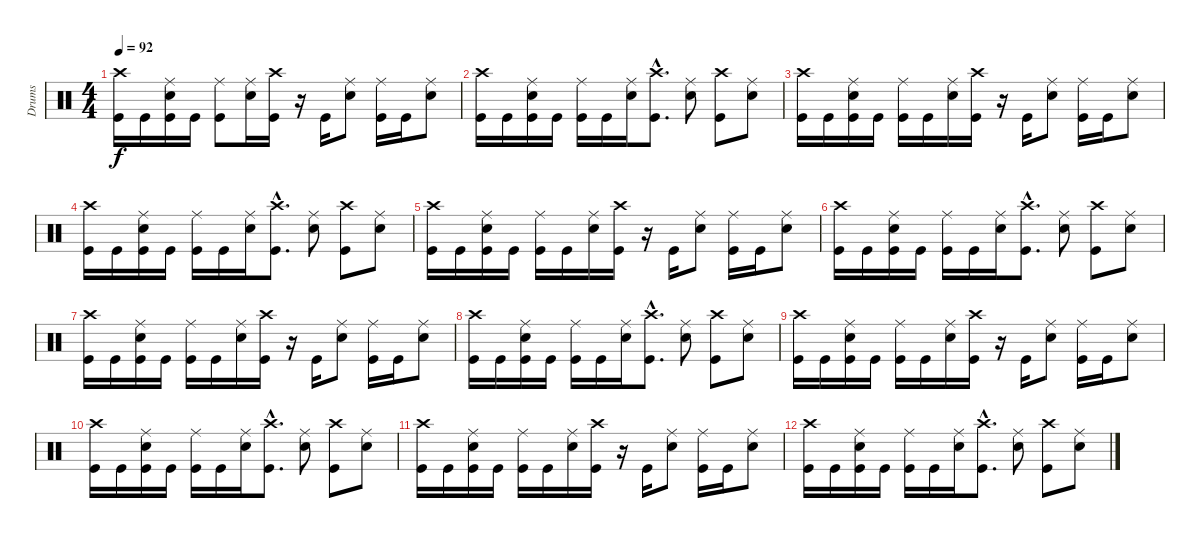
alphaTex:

\track ("Drums" "Drums") {instrument percussion}
\staff {score}
\articulation defaults
\ts (4 4)
\tempo 92
\clef neutral
\ks c
("Crash high (hit)" "Kick (hit)").16{dy f} "Kick (hit)".16 ("Ride (middle)" "Snare (hit) 2" "Kick (hit)").16 "Kick (hit)".16 ("Ride (middle)" "Kick (hit)").8 ("Ride (middle)" "Snare (hit) 2").16 ("Crash high (hit)" "Kick (hit)").16 r.16 "Kick (hit)".16 ("Ride (middle)" "Snare (hit) 2").8 ("Ride (middle)" "Kick (hit)").16 "Kick (hit)".16 ("Ride (middle)" "Snare (hit) 2").8 |
("Crash high (hit)" "Kick (hit)").16 "Kick (hit)".16 ("Ride (middle)" "Snare (hit) 2" "Kick (hit)").16 "Kick (hit)".16 ("Ride (middle)" "Kick (hit)").16 "Kick (hit)".16 ("Ride (middle)" "Snare (hit) 2").16 ("Crash high (hit)"{hac} "Kick (hit)"{hac}).8{d} ("Ride (middle)" "Snare (hit) 2").8 ("Crash high (hit)" "Kick (hit)").8 ("Ride (middle)" "Snare (hit) 2").8 |
("Crash high (hit)" "Kick (hit)").16 "Kick (hit)".16 ("Ride (middle)" "Snare (hit) 2" "Kick (hit)").16 "Kick (hit)".16 ("Ride (middle)" "Kick (hit)").16 "Kick (hit)".16 ("Ride (middle)" "Snare (hit) 2").16 ("Crash high (hit)" "Kick (hit)").16 r.16 "Kick (hit)".16 ("Ride (middle)" "Snare (hit) 2").8 ("Ride (middle)" "Kick (hit)").16 "Kick (hit)".16 ("Ride (middle)" "Snare (hit) 2").8 |
("Crash high (hit)" "Kick (hit)").16 "Kick (hit)".16 ("Ride (middle)" "Snare (hit) 2" "Kick (hit)").16 "Kick (hit)".16 ("Ride (middle)" "Kick (hit)").16 "Kick (hit)".16 ("Ride (middle)" "Snare (hit) 2").16 ("Crash high (hit)"{hac} "Kick (hit)"{hac}).8{d} ("Ride (middle)" "Snare (hit) 2").8 ("Crash high (hit)" "Kick (hit)").8 ("Ride (middle)" "Snare (hit) 2").8 |
("Crash high (hit)" "Kick (hit)").16 "Kick (hit)".16 ("Ride (middle)" "Snare (hit) 2" "Kick (hit)").16 "Kick (hit)".16 ("Ride (middle)" "Kick (hit)").16 "Kick (hit)".16 ("Ride (middle)" "Snare (hit) 2").16 ("Crash high (hit)" "Kick (hit)").16 r.16 "Kick (hit)".16 ("Ride (middle)" "Snare (hit) 2").8 ("Ride (middle)" "Kick (hit)").16 "Kick (hit)".16 ("Ride (middle)" "Snare (hit) 2").8 |
("Crash high (hit)" "Kick (hit)").16 "Kick (hit)".16 ("Ride (middle)" "Snare (hit) 2" "Kick (hit)").16 "Kick (hit)".16 ("Ride (middle)" "Kick (hit)").16 "Kick (hit)".16 ("Ride (middle)" "Snare (hit) 2").16 ("Crash high (hit)"{hac} "Kick (hit)"{hac}).8{d} ("Ride (middle)" "Snare (hit) 2").8 ("Crash high (hit)" "Kick (hit)").8 ("Ride (middle)" "Snare (hit) 2").8 |
("Crash high (hit)" "Kick (hit)").16 "Kick (hit)".16 ("Ride (middle)" "Snare (hit) 2" "Kick (hit)").16 "Kick (hit)".16 ("Ride (middle)" "Kick (hit)").16 "Kick (hit)".16 ("Ride (middle)" "Snare (hit) 2").16 ("Crash high (hit)" "Kick (hit)").16 r.16 "Kick (hit)".16 ("Ride (middle)" "Snare (hit) 2").8 ("Ride (middle)" "Kick (hit)").16 "Kick (hit)".16 ("Ride (middle)" "Snare (hit) 2").8 |
("Crash high (hit)" "Kick (hit)").16 "Kick (hit)".16 ("Ride (middle)" "Snare (hit) 2" "Kick (hit)").16 "Kick (hit)".16 ("Ride (middle)" "Kick (hit)").16 "Kick (hit)".16 ("Ride (middle)" "Snare (hit) 2").16 ("Crash high (hit)"{hac} "Kick (hit)"{hac}).8{d} ("Ride (middle)" "Snare (hit) 2").8 ("Crash high (hit)" "Kick (hit)").8 ("Ride (middle)" "Snare (hit) 2").8 |
("Crash high (hit)" "Kick (hit)").16{volume 0} "Kick (hit)".16 ("Ride (middle)" "Snare (hit) 2" "Kick (hit)").16 "Kick (hit)".16 ("Ride (middle)" "Kick (hit)").16 "Kick (hit)".16 ("Ride (middle)" "Snare (hit) 2").16 ("Crash high (hit)" "Kick (hit)").16 r.16 "Kick (hit)".16 ("Ride (middle)" "Snare (hit) 2").8 ("Ride (middle)" "Kick (hit)").16 "Kick (hit)".16 ("Ride (middle)" "Snare (hit) 2").8 |
("Crash high (hit)" "Kick (hit)").16 "Kick (hit)".16 ("Ride (middle)" "Snare (hit) 2" "Kick (hit)").16 "Kick (hit)".16 ("Ride (middle)" "Kick (hit)").16 "Kick (hit)".16 ("Ride (middle)" "Snare (hit) 2").16 ("Crash high (hit)"{hac} "Kick (hit)"{hac}).8{d} ("Ride (middle)" "Snare (hit) 2").8 ("Crash high (hit)" "Kick (hit)").8 ("Ride (middle)" "Snare (hit) 2").8 |
("Crash high (hit)" "Kick (hit)").16 "Kick (hit)".16 ("Ride (middle)" "Snare (hit) 2" "Kick (hit)").16 "Kick (hit)".16 ("Ride (middle)" "Kick (hit)").16 "Kick (hit)".16 ("Ride (middle)" "Snare (hit) 2").16 ("Crash high (hit)" "Kick (hit)").16 r.16 "Kick (hit)".16 ("Ride (middle)" "Snare (hit) 2").8 ("Ride (middle)" "Kick (hit)").16 "Kick (hit)".16 ("Ride (middle)" "Snare (hit) 2").8 |
("Crash high (hit)" "Kick (hit)").16 "Kick (hit)".16 ("Ride (middle)" "Snare (hit) 2" "Kick (hit)").16 "Kick (hit)".16 ("Ride (middle)" "Kick (hit)").16 "Kick (hit)".16 ("Ride (middle)" "Snare (hit) 2").16 ("Crash high (hit)"{hac} "Kick (hit)"{hac}).8{d} ("Ride (middle)" "Snare (hit) 2").8 ("Crash high (hit)" "Kick (hit)").8 ("Ride (middle)" "Snare (hit) 2").8
